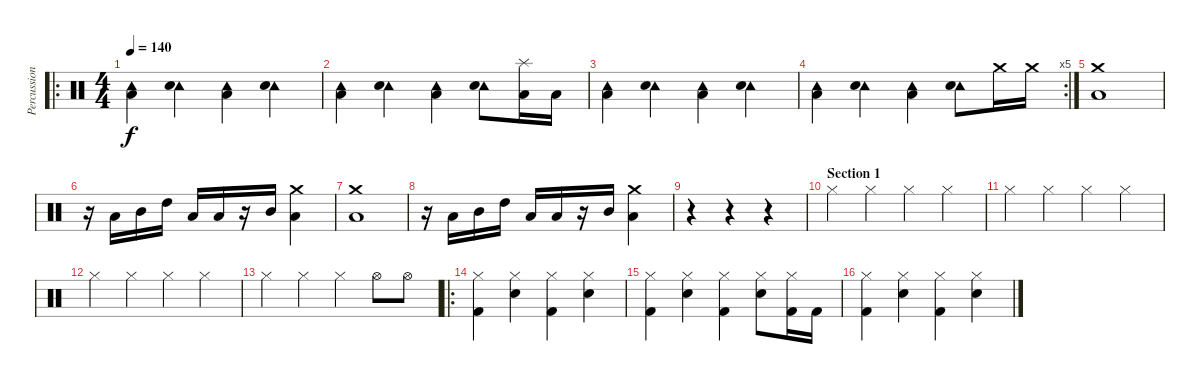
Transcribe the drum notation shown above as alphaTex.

\track ("Percussion" "Percussion") {instrument percussion}
\staff {score}
\articulation defaults
\ro
\ts (4 4)
\tempo 140
\clef neutral
\ks c
("Tambourine (hit)" "Low Floor Tom (hit)").4{dy f} ("Tambourine (hit)" "Electric Snare (hit)").4 ("Tambourine (hit)" "Low Floor Tom (hit)").4 ("Tambourine (hit)" "Electric Snare (hit)").4 |
("Tambourine (hit)" "Low Floor Tom (hit)").4 ("Tambourine (hit)" "Electric Snare (hit)").4 ("Tambourine (hit)" "Low Floor Tom (hit)").4 ("Tambourine (hit)" "Electric Snare (hit)").8 ("Splash (hit)" "Low Floor Tom (hit)").16 "Low Floor Tom (hit)".16 |
("Tambourine (hit)" "Low Floor Tom (hit)").4 ("Tambourine (hit)" "Electric Snare (hit)").4 ("Tambourine (hit)" "Low Floor Tom (hit)").4 ("Tambourine (hit)" "Electric Snare (hit)").4 |
\rc 5
("Tambourine (hit)" "Low Floor Tom (hit)").4 ("Tambourine (hit)" "Electric Snare (hit)").4 ("Tambourine (hit)" "Low Floor Tom (hit)").4 ("Tambourine (hit)" "Electric Snare (hit)").8 "Crash medium (hit)".16 "Crash medium (hit)".16 |
("Crash medium (hit)" "Low Floor Tom (hit)").1 |
r.16 "Low Tom (hit)".16 "Mid Tom (hit)".16 "High Tom (hit)".16 "Low Tom (hit)".16 "Low Floor Tom (hit)".16 r.16 "Mid Tom (hit)".16 ("Low Floor Tom (hit)" "Crash medium (hit)").4 |
("Crash medium (hit)" "Low Floor Tom (hit)").1 |
r.16 "Low Tom (hit)".16 "Mid Tom (hit)".16 "High Tom (hit)".16 "Low Tom (hit)".16 "Low Floor Tom (hit)".16 r.16 "Mid Tom (hit)".16 ("Low Floor Tom (hit)" "Crash medium (hit)").4 |
r.4 r.4 r.4 |
\section ("" "Section 1")
"Hi-Hat (closed)".4 "Hi-Hat (closed)".4 "Hi-Hat (closed)".4 "Hi-Hat (closed)".4 |
"Hi-Hat (closed)".4 "Hi-Hat (closed)".4 "Hi-Hat (closed)".4 "Hi-Hat (closed)".4 |
"Hi-Hat (closed)".4 "Hi-Hat (closed)".4 "Hi-Hat (closed)".4 "Hi-Hat (closed)".4 |
"Hi-Hat (closed)".4 "Hi-Hat (closed)".4 "Hi-Hat (closed)".4 "Hi-Hat (open)".8 "Hi-Hat (open)".8 |
\ro
("Hi-Hat (closed)" "Kick (hit) 2").4 ("Hi-Hat (closed)" "Snare (hit) 2").4 ("Hi-Hat (closed)" "Kick (hit) 2").4 ("Hi-Hat (closed)" "Snare (hit) 2").4 |
("Hi-Hat (closed)" "Kick (hit) 2").4 ("Hi-Hat (closed)" "Snare (hit) 2").4 ("Hi-Hat (closed)" "Kick (hit) 2").4 ("Hi-Hat (closed)" "Snare (hit) 2").8 ("Hi-Hat (closed)" "Kick (hit) 2").16 "Kick (hit) 2".16 |
("Hi-Hat (closed)" "Kick (hit) 2").4 ("Hi-Hat (closed)" "Snare (hit) 2").4 ("Hi-Hat (closed)" "Kick (hit) 2").4 ("Hi-Hat (closed)" "Snare (hit) 2").4
